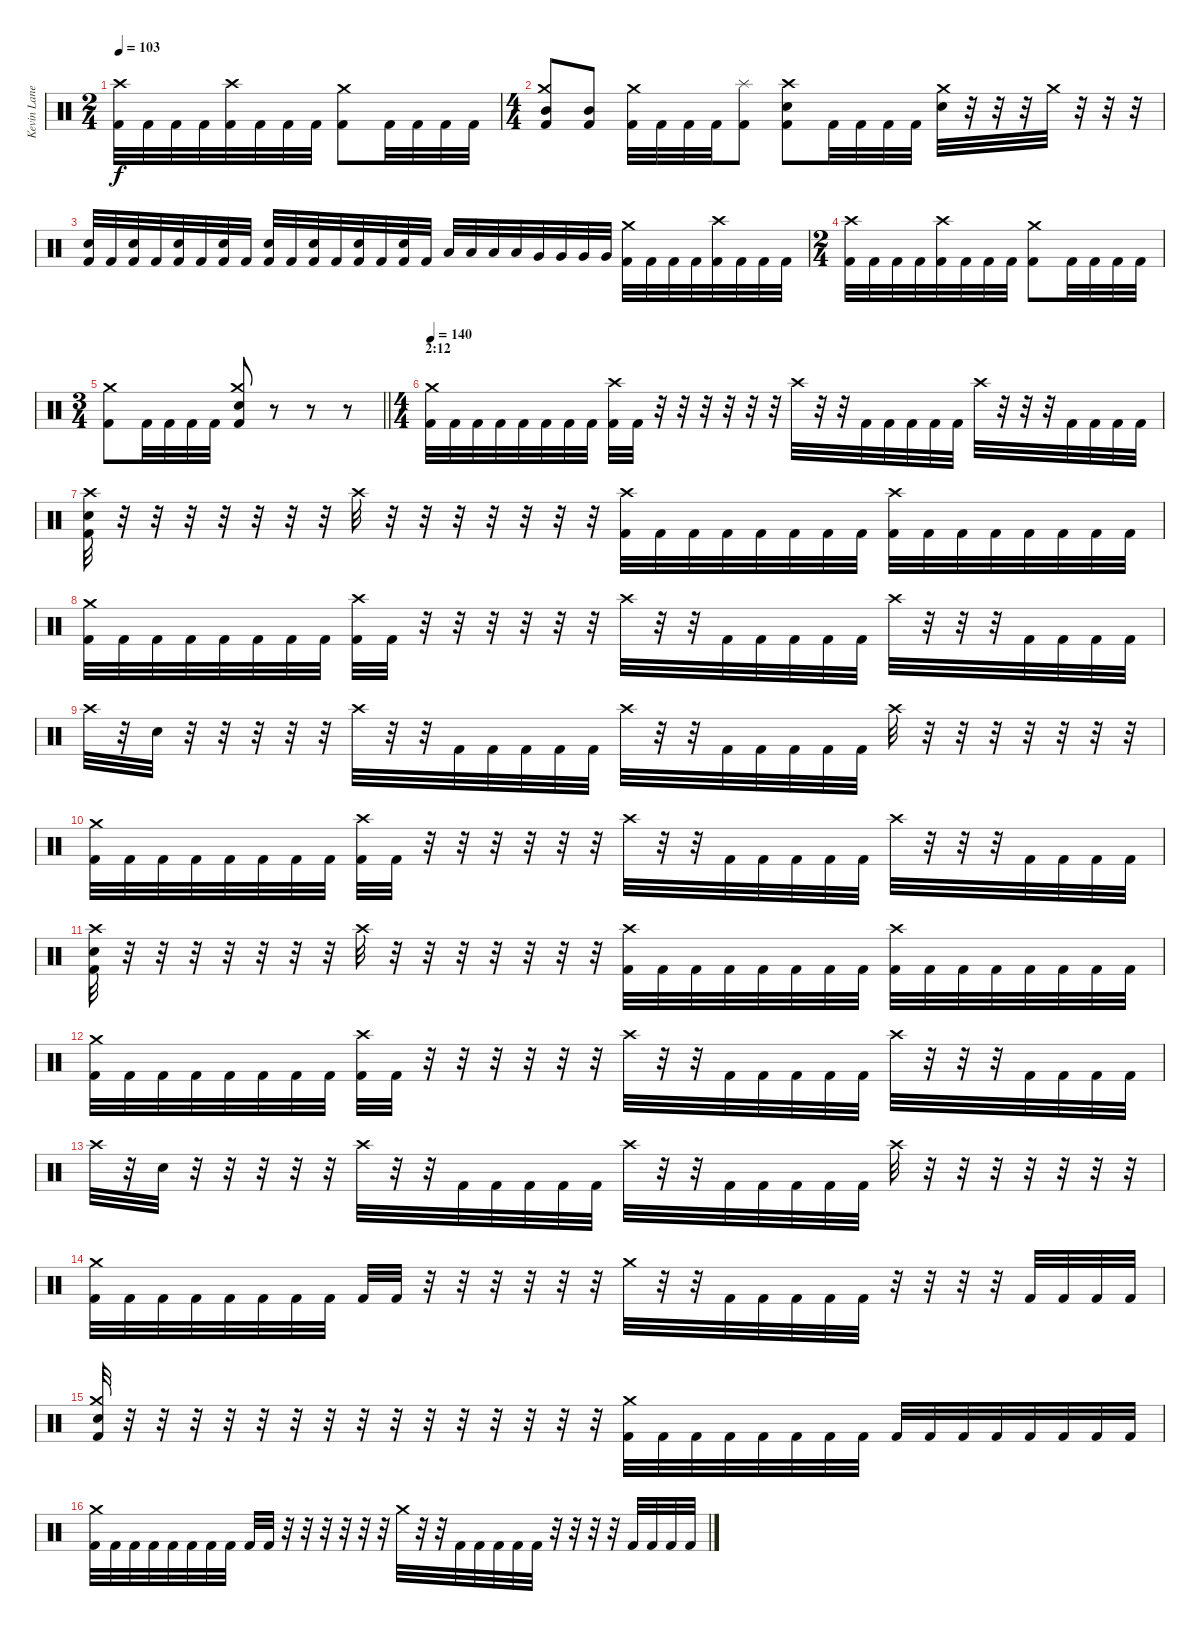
\track ("Kevin Lane" "Kevin Lane") {instrument percussion}
\staff {score}
\articulation defaults
\ts (2 4)
\tempo 103
\clef neutral
\ks c
("Crash high (hit)" "Kick (hit) 2").32{dy f} "Kick (hit) 2".32 "Kick (hit) 2".32 "Kick (hit) 2".32 ("Crash high (hit)" "Kick (hit) 2").32 "Kick (hit) 2".32 "Kick (hit) 2".32 "Kick (hit) 2".32 ("Crash medium (hit)" "Kick (hit) 2").8 "Kick (hit) 2".32 "Kick (hit) 2".32 "Kick (hit) 2".32 "Kick (hit) 2".32 |
\ts (4 4)
("Crash medium (hit)" "Mid Tom (hit)" "Kick (hit) 2").8 ("Mid Tom (hit)" "Kick (hit) 2").8 ("Crash medium (hit)" "Kick (hit) 2").32 "Kick (hit) 2".32 "Kick (hit) 2".32 "Kick (hit) 2".32 ("Splash (hit)" "Kick (hit) 2").8 ("Crash high (hit)" "Electric Snare (hit)" "Kick (hit) 2").8 "Kick (hit) 2".32 "Kick (hit) 2".32 "Kick (hit) 2".32 "Kick (hit) 2".32 ("Crash medium (hit)" "Electric Snare (hit)").32 r.32 r.32 r.32 "Crash medium (hit)".32 r.32 r.32 r.32 |
("Electric Snare (hit)" "Kick (hit) 2").32 "Kick (hit) 2".32 ("Electric Snare (hit)" "Kick (hit) 2").32 "Kick (hit) 2".32 ("Electric Snare (hit)" "Kick (hit) 2").32 "Kick (hit) 2".32 ("Electric Snare (hit)" "Kick (hit) 2").32 "Kick (hit) 2".32 ("Electric Snare (hit)" "Kick (hit) 2").32 "Kick (hit) 2".32 ("Electric Snare (hit)" "Kick (hit) 2").32 "Kick (hit) 2".32 ("Electric Snare (hit)" "Kick (hit) 2").32 "Kick (hit) 2".32 ("Electric Snare (hit)" "Kick (hit) 2").32 "Kick (hit) 2".32 "Low Tom (hit)".32 "Low Tom (hit)".32 "Low Tom (hit)".32 "Low Tom (hit)".32 "Very Low Tom (hit)".32 "Very Low Tom (hit)".32 "Very Low Tom (hit)".32 "Very Low Tom (hit)".32 ("Crash medium (hit)" "Kick (hit) 2").32 "Kick (hit) 2".32 "Kick (hit) 2".32 "Kick (hit) 2".32 ("Crash high (hit)" "Kick (hit) 2").32 "Kick (hit) 2".32 "Kick (hit) 2".32 "Kick (hit) 2".32 |
\ts (2 4)
("Crash high (hit)" "Kick (hit) 2").32 "Kick (hit) 2".32 "Kick (hit) 2".32 "Kick (hit) 2".32 ("Crash high (hit)" "Kick (hit) 2").32 "Kick (hit) 2".32 "Kick (hit) 2".32 "Kick (hit) 2".32 ("Crash medium (hit)" "Kick (hit) 2").8 "Kick (hit) 2".32 "Kick (hit) 2".32 "Kick (hit) 2".32 "Kick (hit) 2".32 |
\ts (3 4)
\barLineRight lightlight
("Crash medium (hit)" "Kick (hit) 2").8 "Kick (hit) 2".32 "Kick (hit) 2".32 "Kick (hit) 2".32 "Kick (hit) 2".32 ("Crash medium (hit)" "Electric Snare (hit)" "Kick (hit) 2").8 r.8 r.8 r.8 |
\ts (4 4)
\section ("" "2:12")
\tempo 123
\tempo 140
("Crash medium (hit)" "Kick (hit) 2").32 "Kick (hit) 2".32 "Kick (hit) 2".32 "Kick (hit) 2".32 "Kick (hit) 2".32 "Kick (hit) 2".32 "Kick (hit) 2".32 "Kick (hit) 2".32 ("Crash high (hit)" "Kick (hit) 2").32 "Kick (hit) 2".32 r.32 r.32 r.32 r.32 r.32 r.32 "Crash high (hit)".32 r.32 r.32 "Kick (hit) 2".32 "Kick (hit) 2".32 "Kick (hit) 2".32 "Kick (hit) 2".32 "Kick (hit) 2".32 "Crash high (hit)".32 r.32 r.32 r.32 "Kick (hit) 2".32 "Kick (hit) 2".32 "Kick (hit) 2".32 "Kick (hit) 2".32 |
("Crash high (hit)" "Electric Snare (hit)" "Kick (hit) 2").32 r.32 r.32 r.32 r.32 r.32 r.32 r.32 "Crash high (hit)".32 r.32 r.32 r.32 r.32 r.32 r.32 r.32 ("Crash high (hit)" "Kick (hit) 2").32 "Kick (hit) 2".32 "Kick (hit) 2".32 "Kick (hit) 2".32 "Kick (hit) 2".32 "Kick (hit) 2".32 "Kick (hit) 2".32 "Kick (hit) 2".32 ("Crash high (hit)" "Kick (hit) 2").32 "Kick (hit) 2".32 "Kick (hit) 2".32 "Kick (hit) 2".32 "Kick (hit) 2".32 "Kick (hit) 2".32 "Kick (hit) 2".32 "Kick (hit) 2".32 |
("Crash medium (hit)" "Kick (hit) 2").32 "Kick (hit) 2".32 "Kick (hit) 2".32 "Kick (hit) 2".32 "Kick (hit) 2".32 "Kick (hit) 2".32 "Kick (hit) 2".32 "Kick (hit) 2".32 ("Crash high (hit)" "Kick (hit) 2").32 "Kick (hit) 2".32 r.32 r.32 r.32 r.32 r.32 r.32 "Crash high (hit)".32 r.32 r.32 "Kick (hit) 2".32 "Kick (hit) 2".32 "Kick (hit) 2".32 "Kick (hit) 2".32 "Kick (hit) 2".32 "Crash high (hit)".32 r.32 r.32 r.32 "Kick (hit) 2".32 "Kick (hit) 2".32 "Kick (hit) 2".32 "Kick (hit) 2".32 |
"Crash high (hit)".32 r.32 "Electric Snare (hit)".32 r.32 r.32 r.32 r.32 r.32 "Crash high (hit)".32 r.32 r.32 "Kick (hit) 2".32 "Kick (hit) 2".32 "Kick (hit) 2".32 "Kick (hit) 2".32 "Kick (hit) 2".32 "Crash high (hit)".32 r.32 r.32 "Kick (hit) 2".32 "Kick (hit) 2".32 "Kick (hit) 2".32 "Kick (hit) 2".32 "Kick (hit) 2".32 "Crash high (hit)".32 r.32 r.32 r.32 r.32 r.32 r.32 r.32 |
("Crash medium (hit)" "Kick (hit) 2").32 "Kick (hit) 2".32 "Kick (hit) 2".32 "Kick (hit) 2".32 "Kick (hit) 2".32 "Kick (hit) 2".32 "Kick (hit) 2".32 "Kick (hit) 2".32 ("Crash high (hit)" "Kick (hit) 2").32 "Kick (hit) 2".32 r.32 r.32 r.32 r.32 r.32 r.32 "Crash high (hit)".32 r.32 r.32 "Kick (hit) 2".32 "Kick (hit) 2".32 "Kick (hit) 2".32 "Kick (hit) 2".32 "Kick (hit) 2".32 "Crash high (hit)".32 r.32 r.32 r.32 "Kick (hit) 2".32 "Kick (hit) 2".32 "Kick (hit) 2".32 "Kick (hit) 2".32 |
("Crash high (hit)" "Electric Snare (hit)" "Kick (hit) 2").32 r.32 r.32 r.32 r.32 r.32 r.32 r.32 "Crash high (hit)".32 r.32 r.32 r.32 r.32 r.32 r.32 r.32 ("Crash high (hit)" "Kick (hit) 2").32 "Kick (hit) 2".32 "Kick (hit) 2".32 "Kick (hit) 2".32 "Kick (hit) 2".32 "Kick (hit) 2".32 "Kick (hit) 2".32 "Kick (hit) 2".32 ("Crash high (hit)" "Kick (hit) 2").32 "Kick (hit) 2".32 "Kick (hit) 2".32 "Kick (hit) 2".32 "Kick (hit) 2".32 "Kick (hit) 2".32 "Kick (hit) 2".32 "Kick (hit) 2".32 |
("Crash medium (hit)" "Kick (hit) 2").32 "Kick (hit) 2".32 "Kick (hit) 2".32 "Kick (hit) 2".32 "Kick (hit) 2".32 "Kick (hit) 2".32 "Kick (hit) 2".32 "Kick (hit) 2".32 ("Crash high (hit)" "Kick (hit) 2").32 "Kick (hit) 2".32 r.32 r.32 r.32 r.32 r.32 r.32 "Crash high (hit)".32 r.32 r.32 "Kick (hit) 2".32 "Kick (hit) 2".32 "Kick (hit) 2".32 "Kick (hit) 2".32 "Kick (hit) 2".32 "Crash high (hit)".32 r.32 r.32 r.32 "Kick (hit) 2".32 "Kick (hit) 2".32 "Kick (hit) 2".32 "Kick (hit) 2".32 |
"Crash high (hit)".32 r.32 "Electric Snare (hit)".32 r.32 r.32 r.32 r.32 r.32 "Crash high (hit)".32 r.32 r.32 "Kick (hit) 2".32 "Kick (hit) 2".32 "Kick (hit) 2".32 "Kick (hit) 2".32 "Kick (hit) 2".32 "Crash high (hit)".32 r.32 r.32 "Kick (hit) 2".32 "Kick (hit) 2".32 "Kick (hit) 2".32 "Kick (hit) 2".32 "Kick (hit) 2".32 "Crash high (hit)".32 r.32 r.32 r.32 r.32 r.32 r.32 r.32 |
("Crash medium (hit)" "Kick (hit) 2").32 "Kick (hit) 2".32 "Kick (hit) 2".32 "Kick (hit) 2".32 "Kick (hit) 2".32 "Kick (hit) 2".32 "Kick (hit) 2".32 "Kick (hit) 2".32 "Kick (hit) 2".32 "Kick (hit) 2".32 r.32 r.32 r.32 r.32 r.32 r.32 "Crash medium (hit)".32 r.32 r.32 "Kick (hit) 2".32 "Kick (hit) 2".32 "Kick (hit) 2".32 "Kick (hit) 2".32 "Kick (hit) 2".32 r.32 r.32 r.32 r.32 "Kick (hit) 2".32 "Kick (hit) 2".32 "Kick (hit) 2".32 "Kick (hit) 2".32 |
("Crash medium (hit)" "Electric Snare (hit)" "Kick (hit) 2").32 r.32 r.32 r.32 r.32 r.32 r.32 r.32 r.32 r.32 r.32 r.32 r.32 r.32 r.32 r.32 ("Crash medium (hit)" "Kick (hit) 2").32 "Kick (hit) 2".32 "Kick (hit) 2".32 "Kick (hit) 2".32 "Kick (hit) 2".32 "Kick (hit) 2".32 "Kick (hit) 2".32 "Kick (hit) 2".32 "Kick (hit) 2".32 "Kick (hit) 2".32 "Kick (hit) 2".32 "Kick (hit) 2".32 "Kick (hit) 2".32 "Kick (hit) 2".32 "Kick (hit) 2".32 "Kick (hit) 2".32 |
("Crash medium (hit)" "Kick (hit) 2").32 "Kick (hit) 2".32 "Kick (hit) 2".32 "Kick (hit) 2".32 "Kick (hit) 2".32 "Kick (hit) 2".32 "Kick (hit) 2".32 "Kick (hit) 2".32 "Kick (hit) 2".32 "Kick (hit) 2".32 r.32 r.32 r.32 r.32 r.32 r.32 "Crash medium (hit)".32 r.32 r.32 "Kick (hit) 2".32 "Kick (hit) 2".32 "Kick (hit) 2".32 "Kick (hit) 2".32 "Kick (hit) 2".32 r.32 r.32 r.32 r.32 "Kick (hit) 2".32 "Kick (hit) 2".32 "Kick (hit) 2".32 "Kick (hit) 2".32
